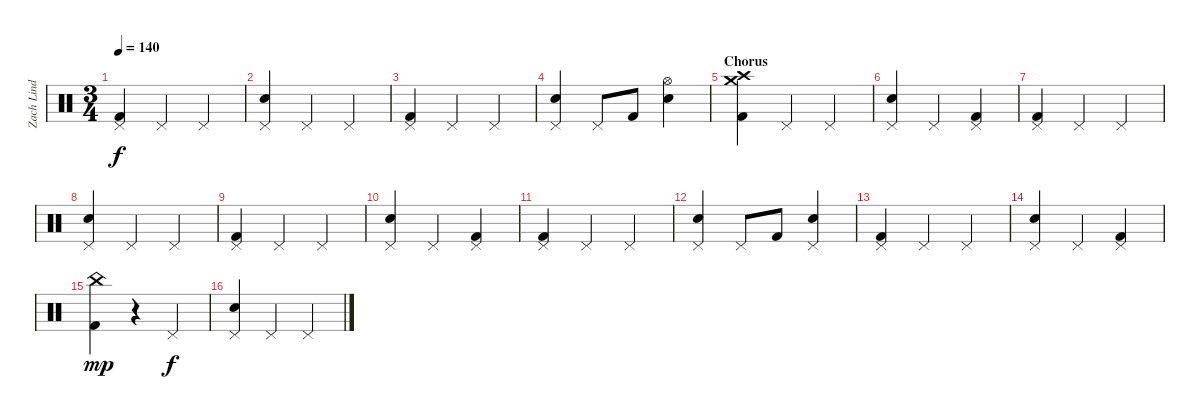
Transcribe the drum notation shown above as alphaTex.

\track ("Zach Lind - Drums" "Zach Lind ") {instrument percussion}
\staff {score}
\articulation defaults
\ts (3 4)
\tempo 140
\clef neutral
\ks c
("Pedal Hi-Hat (hit)" "Kick (hit) 2").4{dy f} "Pedal Hi-Hat (hit)".4 "Pedal Hi-Hat (hit)".4 |
("Pedal Hi-Hat (hit)" "Electric Snare (hit)").4 "Pedal Hi-Hat (hit)".4 "Pedal Hi-Hat (hit)".4 |
("Pedal Hi-Hat (hit)" "Kick (hit) 2").4 "Pedal Hi-Hat (hit)".4 "Pedal Hi-Hat (hit)".4 |
("Pedal Hi-Hat (hit)" "Electric Snare (hit)").4 "Pedal Hi-Hat (hit)".8 "Kick (hit) 2".8 ("Hi-Hat (open)" "Electric Snare (hit)").4 |
\section ("" "Chorus")
("Crash high (hit)" "Crash medium (hit)" "Kick (hit) 2").4 "Pedal Hi-Hat (hit)".4 "Pedal Hi-Hat (hit)".4 |
("Pedal Hi-Hat (hit)" "Electric Snare (hit)").4 "Pedal Hi-Hat (hit)".4 ("Pedal Hi-Hat (hit)" "Kick (hit) 2").4 |
("Pedal Hi-Hat (hit)" "Kick (hit) 2").4 "Pedal Hi-Hat (hit)".4 "Pedal Hi-Hat (hit)".4 |
("Pedal Hi-Hat (hit)" "Electric Snare (hit)").4 "Pedal Hi-Hat (hit)".4 "Pedal Hi-Hat (hit)".4 |
("Pedal Hi-Hat (hit)" "Kick (hit) 2").4 "Pedal Hi-Hat (hit)".4 "Pedal Hi-Hat (hit)".4 |
("Pedal Hi-Hat (hit)" "Electric Snare (hit)").4 "Pedal Hi-Hat (hit)".4 ("Pedal Hi-Hat (hit)" "Kick (hit) 2").4 |
("Pedal Hi-Hat (hit)" "Kick (hit) 2").4 "Pedal Hi-Hat (hit)".4 "Pedal Hi-Hat (hit)".4 |
("Pedal Hi-Hat (hit)" "Electric Snare (hit)").4 "Pedal Hi-Hat (hit)".8 "Kick (hit) 2".8 ("Pedal Hi-Hat (hit)" "Electric Snare (hit)").4 |
("Pedal Hi-Hat (hit)" "Kick (hit) 2").4 "Pedal Hi-Hat (hit)".4 "Pedal Hi-Hat (hit)".4 |
("Pedal Hi-Hat (hit)" "Electric Snare (hit)").4 "Pedal Hi-Hat (hit)".4 ("Pedal Hi-Hat (hit)" "Kick (hit) 2").4 |
("China (hit)" "Kick (hit) 2").4{dy mp} r.4 "Pedal Hi-Hat (hit)".4{dy f} |
("Pedal Hi-Hat (hit)" "Electric Snare (hit)").4 "Pedal Hi-Hat (hit)".4 "Pedal Hi-Hat (hit)".4
